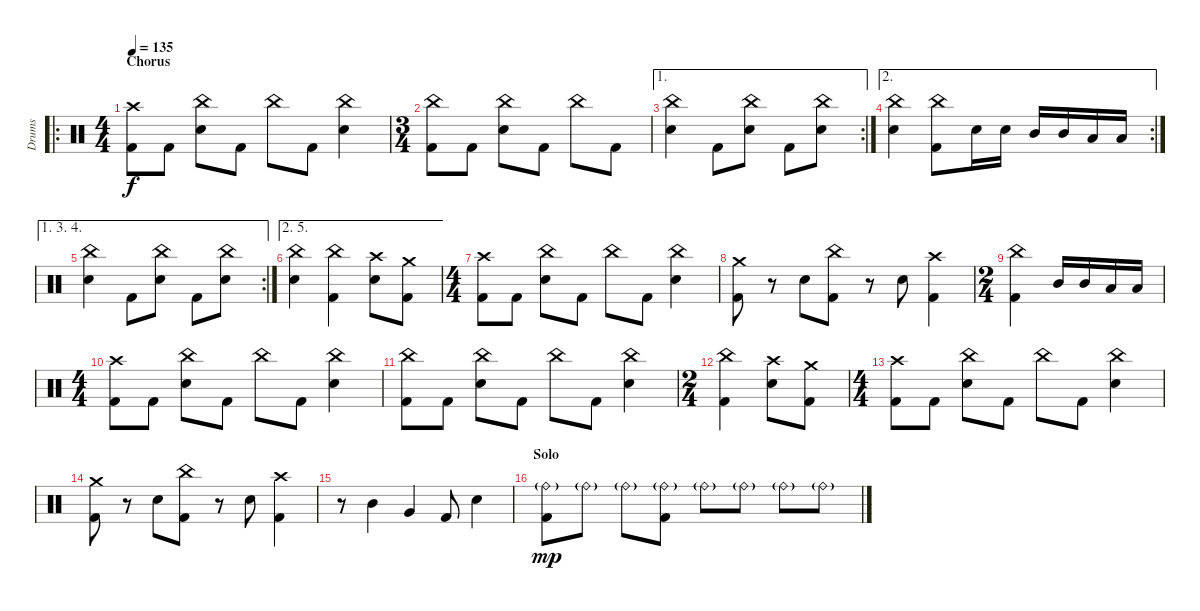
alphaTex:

\track ("Drums" "Drums") {instrument percussion}
\staff {score}
\articulation defaults
\ro
\ts (4 4)
\section ("" "Chorus")
\tempo 135
\clef neutral
\ks c
("Crash high (hit)" "Kick (hit) 2").8{dy f} "Kick (hit) 2".8 ("China (hit)" "Electric Snare (hit)").8 "Kick (hit) 2".8 "China (hit)".8 "Kick (hit) 2".8 ("China (hit)" "Electric Snare (hit)").4 |
\ts (3 4)
("China (hit)" "Kick (hit) 2").8 "Kick (hit) 2".8 ("China (hit)" "Electric Snare (hit)").8 "Kick (hit) 2".8 "China (hit)".8 "Kick (hit) 2".8 |
\ae 1
\rc 2
("China (hit)" "Electric Snare (hit)").4 "Kick (hit) 2".8 ("China (hit)" "Electric Snare (hit)").8 "Kick (hit) 2".8 ("China (hit)" "Electric Snare (hit)").8 |
\ae 2
\rc 2
("China (hit)" "Electric Snare (hit)").4 ("China (hit)" "Kick (hit) 2").8 "Electric Snare (hit)".16 "Electric Snare (hit)".16 "Mid Tom (hit)".16 "Mid Tom (hit)".16 "Low Tom (hit)".16 "Low Tom (hit)".16 |
\ae (1 3 4)
\rc 2
("China (hit)" "Electric Snare (hit)").4 "Kick (hit) 2".8 ("China (hit)" "Electric Snare (hit)").8 "Kick (hit) 2".8 ("China (hit)" "Electric Snare (hit)").8 |
\ae (2 5)
("China (hit)" "Electric Snare (hit)").4 ("China (hit)" "Kick (hit) 2").4 ("Crash high (hit)" "Electric Snare (hit)").8 ("Crash medium (hit)" "Kick (hit) 2").8 |
\ts (4 4)
("Crash high (hit)" "Kick (hit) 2").8 "Kick (hit) 2".8 ("China (hit)" "Electric Snare (hit)").8 "Kick (hit) 2".8 "China (hit)".8 "Kick (hit) 2".8 ("China (hit)" "Electric Snare (hit)").4 |
("Crash medium (hit)" "Kick (hit) 2").8 r.8 "Electric Snare (hit)".8 ("China (hit)" "Kick (hit) 2").8 r.8 "Electric Snare (hit)".8 ("Crash high (hit)" "Kick (hit) 2").4 |
\ts (2 4)
("China (hit)" "Kick (hit) 2").4 "Mid Tom (hit)".16 "Mid Tom (hit)".16 "Low Tom (hit)".16 "Low Tom (hit)".16 |
\ts (4 4)
("Crash high (hit)" "Kick (hit) 2").8 "Kick (hit) 2".8 ("China (hit)" "Electric Snare (hit)").8 "Kick (hit) 2".8 "China (hit)".8 "Kick (hit) 2".8 ("China (hit)" "Electric Snare (hit)").4 |
("China (hit)" "Kick (hit) 2").8 "Kick (hit) 2".8 ("China (hit)" "Electric Snare (hit)").8 "Kick (hit) 2".8 "China (hit)".8 "Kick (hit) 2".8 ("China (hit)" "Electric Snare (hit)").4 |
\ts (2 4)
("China (hit)" "Kick (hit) 2").4 ("Crash high (hit)" "Electric Snare (hit)").8 ("Crash medium (hit)" "Kick (hit) 2").8 |
\ts (4 4)
("Crash high (hit)" "Kick (hit) 2").8 "Kick (hit) 2".8 ("China (hit)" "Electric Snare (hit)").8 "Kick (hit) 2".8 "China (hit)".8 "Kick (hit) 2".8 ("China (hit)" "Electric Snare (hit)").4 |
("Crash medium (hit)" "Kick (hit) 2").8 r.8 "Electric Snare (hit)".8 ("China (hit)" "Kick (hit) 2").8 r.8 "Electric Snare (hit)".8 ("Crash high (hit)" "Kick (hit) 2").4 |
r.8 "Mid Tom (hit)".4 "Very Low Tom (hit)".4 "Kick (hit) 2".8 "Electric Snare (hit)".4 |
\section ("" "Solo")
("Ride (bell)"{g} "Kick (hit) 2").8{dy mp} "Ride (bell)"{g}.8 "Ride (bell)"{g}.8 ("Ride (bell)"{g} "Kick (hit) 2").8 "Ride (bell)"{g}.8 "Ride (bell)"{g}.8 "Ride (bell)"{g}.8 "Ride (bell)"{g}.8
